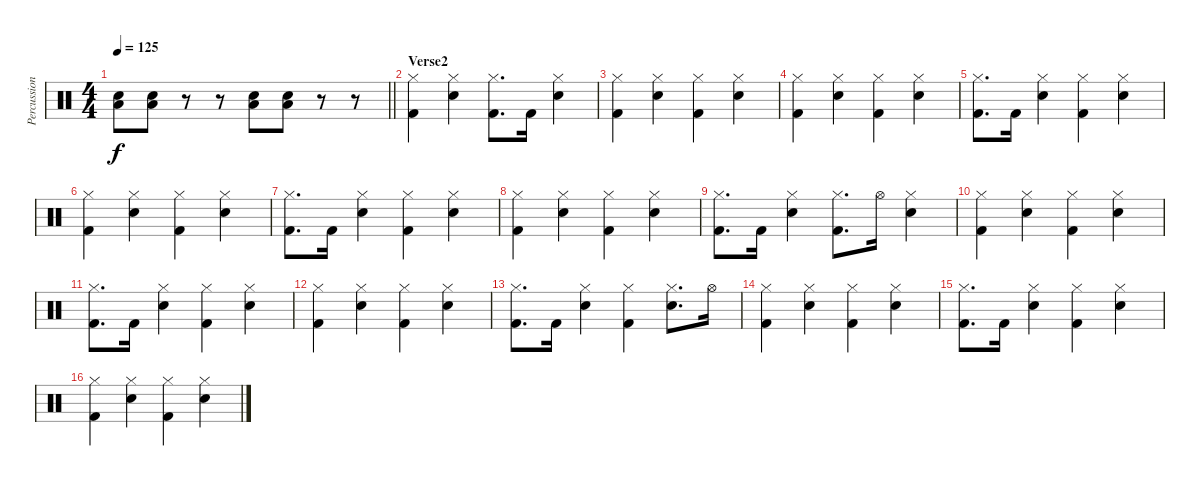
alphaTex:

\track ("Percussion" "Percussion") {instrument percussion}
\staff {score}
\articulation defaults
\ts (4 4)
\tempo 125
\clef neutral
\barLineRight lightlight
\ks c
("Electric Snare (hit)" "Low Tom (hit)").8{dy f} ("Electric Snare (hit)" "Low Tom (hit)").8 r.8 r.8 ("Electric Snare (hit)" "Low Tom (hit)").8 ("Electric Snare (hit)" "Low Tom (hit)").8 r.8 r.8 |
\section ("" "Verse2")
("Hi-Hat (closed)" "Kick (hit) 2").4 ("Hi-Hat (closed)" "Electric Snare (hit)").4 ("Hi-Hat (closed)" "Kick (hit) 2").8{d} "Kick (hit) 2".16 ("Hi-Hat (closed)" "Electric Snare (hit)").4 |
("Hi-Hat (closed)" "Kick (hit) 2").4 ("Hi-Hat (closed)" "Electric Snare (hit)").4 ("Hi-Hat (closed)" "Kick (hit) 2").4 ("Hi-Hat (closed)" "Electric Snare (hit)").4 |
("Hi-Hat (closed)" "Kick (hit) 2").4 ("Hi-Hat (closed)" "Electric Snare (hit)").4 ("Hi-Hat (closed)" "Kick (hit) 2").4 ("Hi-Hat (closed)" "Electric Snare (hit)").4 |
("Hi-Hat (closed)" "Kick (hit) 2").8{d} "Kick (hit) 2".16 ("Hi-Hat (closed)" "Electric Snare (hit)").4 ("Hi-Hat (closed)" "Kick (hit) 2").4 ("Hi-Hat (closed)" "Electric Snare (hit)").4 |
("Hi-Hat (closed)" "Kick (hit) 2").4 ("Hi-Hat (closed)" "Electric Snare (hit)").4 ("Hi-Hat (closed)" "Kick (hit) 2").4 ("Hi-Hat (closed)" "Electric Snare (hit)").4 |
("Hi-Hat (closed)" "Kick (hit) 2").8{d} "Kick (hit) 2".16 ("Hi-Hat (closed)" "Electric Snare (hit)").4 ("Hi-Hat (closed)" "Kick (hit) 2").4 ("Hi-Hat (closed)" "Electric Snare (hit)").4 |
("Hi-Hat (closed)" "Kick (hit) 2").4 ("Hi-Hat (closed)" "Electric Snare (hit)").4 ("Hi-Hat (closed)" "Kick (hit) 2").4 ("Hi-Hat (closed)" "Electric Snare (hit)").4 |
("Hi-Hat (closed)" "Kick (hit) 2").8{d} "Kick (hit) 2".16 ("Hi-Hat (closed)" "Electric Snare (hit)").4 ("Hi-Hat (closed)" "Kick (hit) 2").8{d} "Hi-Hat (open)".16 ("Hi-Hat (closed)" "Electric Snare (hit)").4 |
("Hi-Hat (closed)" "Kick (hit) 2").4 ("Hi-Hat (closed)" "Electric Snare (hit)").4 ("Hi-Hat (closed)" "Kick (hit) 2").4 ("Hi-Hat (closed)" "Electric Snare (hit)").4 |
("Hi-Hat (closed)" "Kick (hit) 2").8{d} "Kick (hit) 2".16 ("Hi-Hat (closed)" "Electric Snare (hit)").4 ("Hi-Hat (closed)" "Kick (hit) 2").4 ("Hi-Hat (closed)" "Electric Snare (hit)").4 |
("Hi-Hat (closed)" "Kick (hit) 2").4 ("Hi-Hat (closed)" "Electric Snare (hit)").4 ("Hi-Hat (closed)" "Kick (hit) 2").4 ("Hi-Hat (closed)" "Electric Snare (hit)").4 |
("Hi-Hat (closed)" "Kick (hit) 2").8{d} "Kick (hit) 2".16 ("Hi-Hat (closed)" "Electric Snare (hit)").4 ("Hi-Hat (closed)" "Kick (hit) 2").4 ("Hi-Hat (closed)" "Electric Snare (hit)").8{d} "Hi-Hat (open)".16 |
("Hi-Hat (closed)" "Kick (hit) 2").4 ("Hi-Hat (closed)" "Electric Snare (hit)").4 ("Hi-Hat (closed)" "Kick (hit) 2").4 ("Hi-Hat (closed)" "Electric Snare (hit)").4 |
("Hi-Hat (closed)" "Kick (hit) 2").8{d} "Kick (hit) 2".16 ("Hi-Hat (closed)" "Electric Snare (hit)").4 ("Hi-Hat (closed)" "Kick (hit) 2").4 ("Hi-Hat (closed)" "Electric Snare (hit)").4 |
("Hi-Hat (closed)" "Kick (hit) 2").4 ("Hi-Hat (closed)" "Electric Snare (hit)").4 ("Hi-Hat (closed)" "Kick (hit) 2").4 ("Hi-Hat (closed)" "Electric Snare (hit)").4
